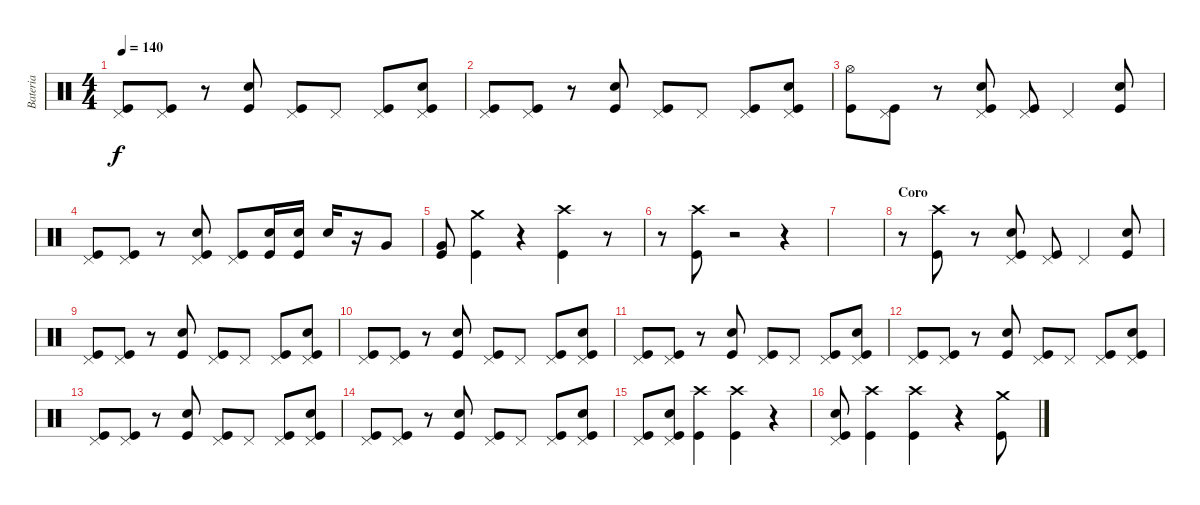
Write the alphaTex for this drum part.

\track ("Bateria" "Bateria") {instrument percussion}
\staff {score}
\articulation defaults
\ts (4 4)
\tempo 140
\clef neutral
\ks c
("Kick (hit)" "Pedal Hi-Hat (hit)").8{dy f} ("Kick (hit)" "Pedal Hi-Hat (hit)").8 r.8 ("Kick (hit)" "Snare (hit) 2").8 ("Kick (hit)" "Pedal Hi-Hat (hit)").8 "Pedal Hi-Hat (hit)".8 ("Kick (hit)" "Pedal Hi-Hat (hit)").8 ("Kick (hit)" "Snare (hit) 2" "Pedal Hi-Hat (hit)").8 |
("Kick (hit)" "Pedal Hi-Hat (hit)").8 ("Kick (hit)" "Pedal Hi-Hat (hit)").8 r.8 ("Kick (hit)" "Snare (hit) 2").8 ("Kick (hit)" "Pedal Hi-Hat (hit)").8 "Pedal Hi-Hat (hit)".8 ("Kick (hit)" "Pedal Hi-Hat (hit)").8 ("Kick (hit)" "Snare (hit) 2" "Pedal Hi-Hat (hit)").8 |
("Kick (hit)" "Hi-Hat (open)").8 ("Kick (hit)" "Pedal Hi-Hat (hit)").8 r.8 ("Kick (hit)" "Snare (hit) 2" "Pedal Hi-Hat (hit)").8 ("Kick (hit)" "Pedal Hi-Hat (hit)").8 "Pedal Hi-Hat (hit)".4 ("Kick (hit)" "Snare (hit) 2").8 |
("Kick (hit)" "Pedal Hi-Hat (hit)").8 ("Kick (hit)" "Pedal Hi-Hat (hit)").8 r.8 ("Kick (hit)" "Snare (hit) 2" "Pedal Hi-Hat (hit)").8 ("Kick (hit)" "Pedal Hi-Hat (hit)").8 ("Kick (hit)" "Snare (hit) 2").16 ("Kick (hit)" "Snare (hit) 2").16 "Snare (hit) 2".16 r.16 "Very Low Tom (hit)".8 |
("Kick (hit)" "Very Low Tom (hit)").8 ("Kick (hit)" "Crash medium (hit)").4 r.4 ("Kick (hit)" "Crash high (hit)").4 r.8 |
r.8 ("Kick (hit)" "Crash high (hit)").8 r.2 r.4 |
|
\section ("" "Coro")
r.8 ("Kick (hit)" "Crash high (hit)").8 r.8 ("Kick (hit)" "Snare (hit) 2" "Pedal Hi-Hat (hit)").8 ("Kick (hit)" "Pedal Hi-Hat (hit)").8 "Pedal Hi-Hat (hit)".4 ("Kick (hit)" "Snare (hit) 2").8 |
("Kick (hit)" "Pedal Hi-Hat (hit)").8 ("Kick (hit)" "Pedal Hi-Hat (hit)").8 r.8 ("Kick (hit)" "Snare (hit) 2").8 ("Kick (hit)" "Pedal Hi-Hat (hit)").8 "Pedal Hi-Hat (hit)".8 ("Kick (hit)" "Pedal Hi-Hat (hit)").8 ("Kick (hit)" "Snare (hit) 2" "Pedal Hi-Hat (hit)").8 |
("Kick (hit)" "Pedal Hi-Hat (hit)").8 ("Kick (hit)" "Pedal Hi-Hat (hit)").8 r.8 ("Kick (hit)" "Snare (hit) 2").8 ("Kick (hit)" "Pedal Hi-Hat (hit)").8 "Pedal Hi-Hat (hit)".8 ("Kick (hit)" "Pedal Hi-Hat (hit)").8 ("Kick (hit)" "Snare (hit) 2" "Pedal Hi-Hat (hit)").8 |
("Kick (hit)" "Pedal Hi-Hat (hit)").8 ("Kick (hit)" "Pedal Hi-Hat (hit)").8 r.8 ("Kick (hit)" "Snare (hit) 2").8 ("Kick (hit)" "Pedal Hi-Hat (hit)").8 "Pedal Hi-Hat (hit)".8 ("Kick (hit)" "Pedal Hi-Hat (hit)").8 ("Kick (hit)" "Snare (hit) 2" "Pedal Hi-Hat (hit)").8 |
("Kick (hit)" "Pedal Hi-Hat (hit)").8 ("Kick (hit)" "Pedal Hi-Hat (hit)").8 r.8 ("Kick (hit)" "Snare (hit) 2").8 ("Kick (hit)" "Pedal Hi-Hat (hit)").8 "Pedal Hi-Hat (hit)".8 ("Kick (hit)" "Pedal Hi-Hat (hit)").8 ("Kick (hit)" "Snare (hit) 2" "Pedal Hi-Hat (hit)").8 |
("Kick (hit)" "Pedal Hi-Hat (hit)").8 ("Kick (hit)" "Pedal Hi-Hat (hit)").8 r.8 ("Kick (hit)" "Snare (hit) 2").8 ("Kick (hit)" "Pedal Hi-Hat (hit)").8 "Pedal Hi-Hat (hit)".8 ("Kick (hit)" "Pedal Hi-Hat (hit)").8 ("Kick (hit)" "Snare (hit) 2" "Pedal Hi-Hat (hit)").8 |
("Kick (hit)" "Pedal Hi-Hat (hit)").8 ("Kick (hit)" "Pedal Hi-Hat (hit)").8 r.8 ("Kick (hit)" "Snare (hit) 2").8 ("Kick (hit)" "Pedal Hi-Hat (hit)").8 "Pedal Hi-Hat (hit)".8 ("Kick (hit)" "Pedal Hi-Hat (hit)").8 ("Kick (hit)" "Snare (hit) 2" "Pedal Hi-Hat (hit)").8 |
("Kick (hit)" "Pedal Hi-Hat (hit)").8 ("Kick (hit)" "Snare (hit) 2" "Pedal Hi-Hat (hit)").8 ("Kick (hit)" "Crash high (hit)").4 ("Kick (hit)" "Crash high (hit)").4 r.4 |
("Kick (hit)" "Snare (hit) 2" "Pedal Hi-Hat (hit)").8 ("Kick (hit)" "Crash high (hit)").4 ("Kick (hit)" "Crash high (hit)").4 r.4 ("Kick (hit)" "Crash medium (hit)").8
